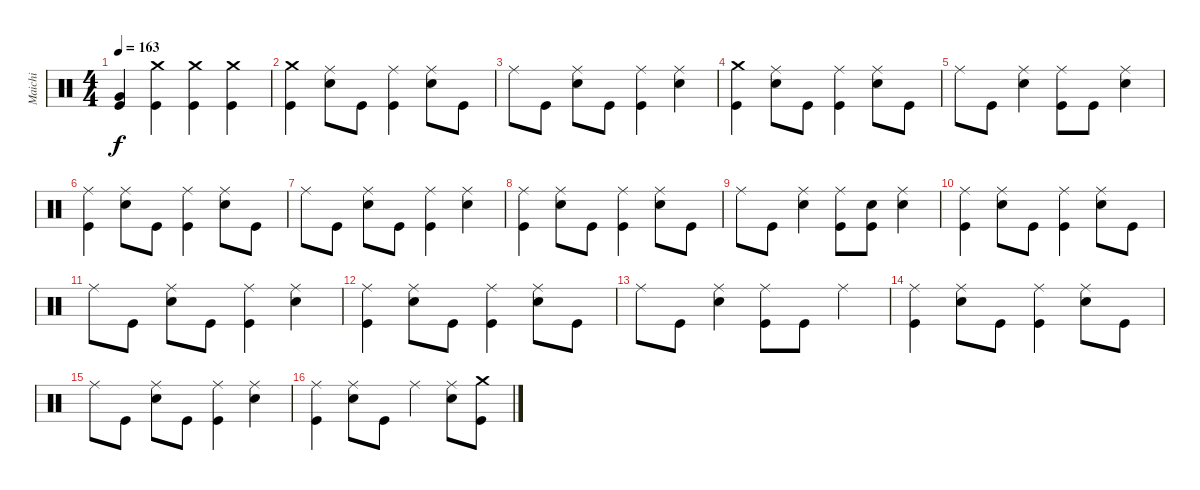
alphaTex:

\track ("Maichi" "Maichi") {instrument percussion}
\staff {score}
\articulation defaults
\ts (4 4)
\tempo 163
\clef neutral
\ks c
("Kick (hit)" "Very Low Tom (hit)").4{dy f} ("Crash medium (hit)" "Kick (hit)").4 ("Kick (hit)" "Crash medium (hit)").4 ("Crash medium (hit)" "Kick (hit)").4 |
("Kick (hit)" "Crash medium (hit)").4 ("Electric Snare (hit)" "Ride (middle)").8 "Kick (hit)".8 ("Kick (hit)" "Ride (middle)").4 ("Ride (middle)" "Electric Snare (hit)").8 "Kick (hit)".8 |
"Ride (middle)".8 "Kick (hit)".8 ("Ride (middle)" "Electric Snare (hit)").8 "Kick (hit)".8 ("Kick (hit)" "Ride (middle)").4 ("Electric Snare (hit)" "Ride (middle)").4 |
("Crash medium (hit)" "Kick (hit)").4 ("Ride (middle)" "Electric Snare (hit)").8 "Kick (hit)".8 ("Kick (hit)" "Ride (middle)").4 ("Electric Snare (hit)" "Ride (middle)").8 "Kick (hit)".8 |
"Ride (middle)".8 "Kick (hit)".8 ("Ride (middle)" "Electric Snare (hit)").4 ("Kick (hit)" "Ride (middle)").8 "Kick (hit)".8 ("Electric Snare (hit)" "Ride (middle)").4 |
("Kick (hit)" "Ride (middle)").4 ("Ride (middle)" "Electric Snare (hit)").8 "Kick (hit)".8 ("Ride (middle)" "Kick (hit)").4 ("Ride (middle)" "Electric Snare (hit)").8 "Kick (hit)".8 |
"Ride (middle)".8 "Kick (hit)".8 ("Electric Snare (hit)" "Ride (middle)").8 "Kick (hit)".8 ("Kick (hit)" "Ride (middle)").4 ("Electric Snare (hit)" "Ride (middle)").4 |
("Ride (middle)" "Kick (hit)").4 ("Electric Snare (hit)" "Ride (middle)").8 "Kick (hit)".8 ("Ride (middle)" "Kick (hit)").4 ("Electric Snare (hit)" "Ride (middle)").8 "Kick (hit)".8 |
"Ride (middle)".8 "Kick (hit)".8 ("Ride (middle)" "Electric Snare (hit)").4 ("Ride (middle)" "Kick (hit)").8 ("Kick (hit)" "Electric Snare (hit)").8 ("Ride (middle)" "Electric Snare (hit)").4 |
("Kick (hit)" "Ride (middle)").4 ("Electric Snare (hit)" "Ride (middle)").8 "Kick (hit)".8 ("Ride (middle)" "Kick (hit)").4 ("Electric Snare (hit)" "Ride (middle)").8 "Kick (hit)".8 |
"Ride (middle)".8 "Kick (hit)".8 ("Ride (middle)" "Electric Snare (hit)").8 "Kick (hit)".8 ("Ride (middle)" "Kick (hit)").4 ("Electric Snare (hit)" "Ride (middle)").4 |
("Kick (hit)" "Ride (middle)").4 ("Ride (middle)" "Electric Snare (hit)").8 "Kick (hit)".8 ("Ride (middle)" "Kick (hit)").4 ("Ride (middle)" "Electric Snare (hit)").8 "Kick (hit)".8 |
"Ride (middle)".8 "Kick (hit)".8 ("Electric Snare (hit)" "Ride (middle)").4 ("Kick (hit)" "Ride (middle)").8 "Kick (hit)".8 "Ride (middle)".4 |
("Kick (hit)" "Ride (middle)").4 ("Electric Snare (hit)" "Ride (middle)").8 "Kick (hit)".8 ("Kick (hit)" "Ride (middle)").4 ("Electric Snare (hit)" "Ride (middle)").8 "Kick (hit)".8 |
"Ride (middle)".8 "Kick (hit)".8 ("Ride (middle)" "Electric Snare (hit)").8 "Kick (hit)".8 ("Ride (middle)" "Kick (hit)").4 ("Electric Snare (hit)" "Ride (middle)").4 |
("Kick (hit)" "Ride (middle)").4 ("Electric Snare (hit)" "Ride (middle)").8 "Kick (hit)".8 "Ride (middle)".4 ("Electric Snare (hit)" "Ride (middle)").8 ("Crash medium (hit)" "Kick (hit)").8
